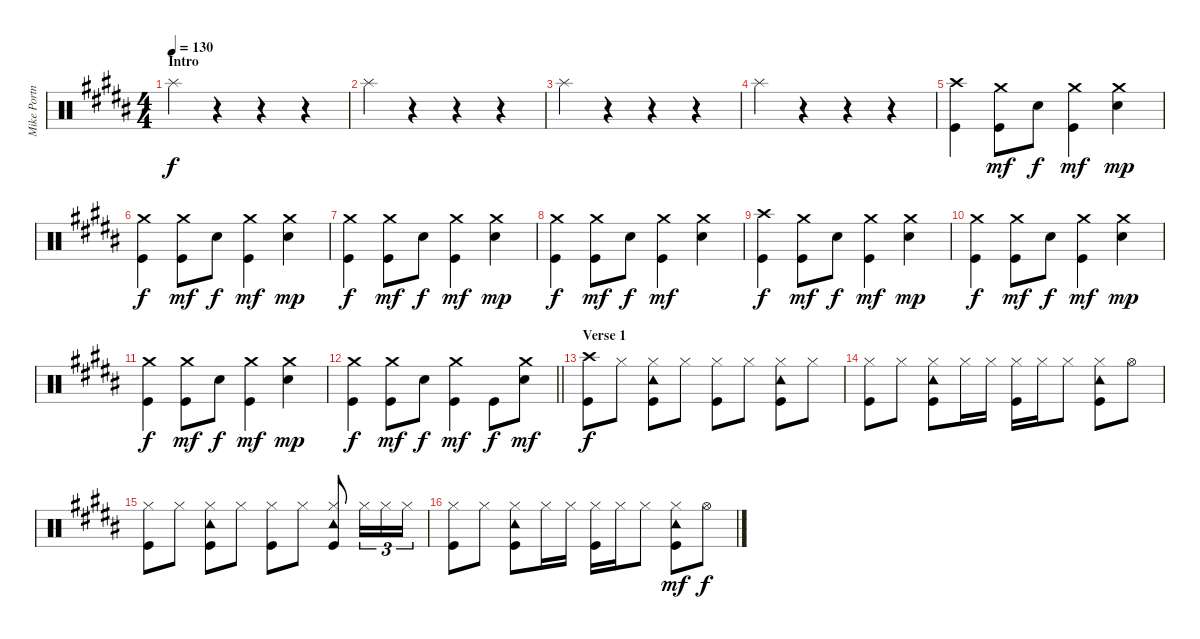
\track ("Mike Portnoy" "Mike Portn") {instrument percussion}
\staff {score}
\articulation defaults
\ts (4 4)
\section ("" "Intro")
\tempo 130
\clef neutral
\ks g#minor "Splash (hit)".4{dy f balance 0}
r.4 r.4 r.4 |
"Splash (hit)".4 r.4 r.4 r.4 |
"Splash (hit)".4 r.4 r.4 r.4 |
"Splash (hit)".4 r.4 r.4 r.4{balance 8} |
("Crash high (hit)" "Kick (hit)").4 ("Crash medium (hit)" "Kick (hit)").8{dy mf} "Electric Snare (hit)".8{dy f} ("Crash medium (hit)" "Kick (hit)").4{dy mf} ("Crash medium (hit)" "Electric Snare (hit)").4{dy mp} |
("Crash medium (hit)" "Kick (hit)").4{dy f} ("Crash medium (hit)" "Kick (hit)").8{dy mf} "Electric Snare (hit)".8{dy f} ("Crash medium (hit)" "Kick (hit)").4{dy mf} ("Crash medium (hit)" "Electric Snare (hit)").4{dy mp} |
("Crash medium (hit)" "Kick (hit)").4{dy f} ("Crash medium (hit)" "Kick (hit)").8{dy mf} "Electric Snare (hit)".8{dy f} ("Crash medium (hit)" "Kick (hit)").4{dy mf} ("Crash medium (hit)" "Electric Snare (hit)").4{dy mp} |
("Crash medium (hit)" "Kick (hit)").4{dy f} ("Crash medium (hit)" "Kick (hit)").8{dy mf} "Electric Snare (hit)".8{dy f} ("Crash medium (hit)" "Kick (hit)").4{dy mf} ("Crash medium (hit)" "Electric Snare (hit)").4 |
("Crash high (hit)" "Kick (hit)").4{dy f} ("Crash medium (hit)" "Kick (hit)").8{dy mf} "Electric Snare (hit)".8{dy f} ("Crash medium (hit)" "Kick (hit)").4{dy mf} ("Crash medium (hit)" "Electric Snare (hit)").4{dy mp} |
("Crash medium (hit)" "Kick (hit)").4{dy f} ("Crash medium (hit)" "Kick (hit)").8{dy mf} "Electric Snare (hit)".8{dy f} ("Crash medium (hit)" "Kick (hit)").4{dy mf} ("Crash medium (hit)" "Electric Snare (hit)").4{dy mp} |
("Crash medium (hit)" "Kick (hit)").4{dy f} ("Crash medium (hit)" "Kick (hit)").8{dy mf} "Electric Snare (hit)".8{dy f} ("Crash medium (hit)" "Kick (hit)").4{dy mf} ("Crash medium (hit)" "Electric Snare (hit)").4{dy mp} |
\barLineRight lightlight
("Crash medium (hit)" "Kick (hit)").4{dy f} ("Crash medium (hit)" "Kick (hit)").8{dy mf} "Electric Snare (hit)".8{dy f} ("Crash medium (hit)" "Kick (hit)").4{dy mf} "Kick (hit)".8{dy f} ("Crash medium (hit)" "Electric Snare (hit)").8{dy mf} |
\section ("" "Verse 1")
("Crash high (hit)" "Kick (hit)").8{dy f} "Hi-Hat (closed)".8 ("Hi-Hat (closed)" "Tambourine (hit)" "Kick (hit)").8 "Hi-Hat (closed)".8 ("Hi-Hat (closed)" "Kick (hit)").8 "Hi-Hat (closed)".8 ("Hi-Hat (closed)" "Tambourine (hit)" "Kick (hit)").8 "Hi-Hat (closed)".8 |
("Hi-Hat (closed)" "Kick (hit)").8 "Hi-Hat (closed)".8 ("Hi-Hat (closed)" "Tambourine (hit)" "Kick (hit)").8 "Hi-Hat (closed)".16 "Hi-Hat (closed)".16 ("Hi-Hat (closed)" "Kick (hit)").16 "Hi-Hat (closed)".16 "Hi-Hat (closed)".8 ("Hi-Hat (closed)" "Tambourine (hit)" "Kick (hit)").8 "Hi-Hat (open)".8 |
("Hi-Hat (closed)" "Kick (hit)").8 "Hi-Hat (closed)".8 ("Hi-Hat (closed)" "Tambourine (hit)" "Kick (hit)").8 "Hi-Hat (closed)".8 ("Hi-Hat (closed)" "Kick (hit)").8 "Hi-Hat (closed)".8 ("Hi-Hat (closed)" "Tambourine (hit)" "Kick (hit)").8 "Hi-Hat (closed)".16{tu (3 2)} "Hi-Hat (closed)".16{tu (3 2)} "Hi-Hat (closed)".16{tu (3 2)} |
("Hi-Hat (closed)" "Kick (hit)").8 "Hi-Hat (closed)".8 ("Hi-Hat (closed)" "Tambourine (hit)" "Kick (hit)").8 "Hi-Hat (closed)".16 "Hi-Hat (closed)".16 ("Hi-Hat (closed)" "Kick (hit)").16 "Hi-Hat (closed)".16 "Hi-Hat (closed)".8 ("Hi-Hat (closed)" "Tambourine (hit)" "Kick (hit)").8{dy mf} "Hi-Hat (open)".8{dy f}
